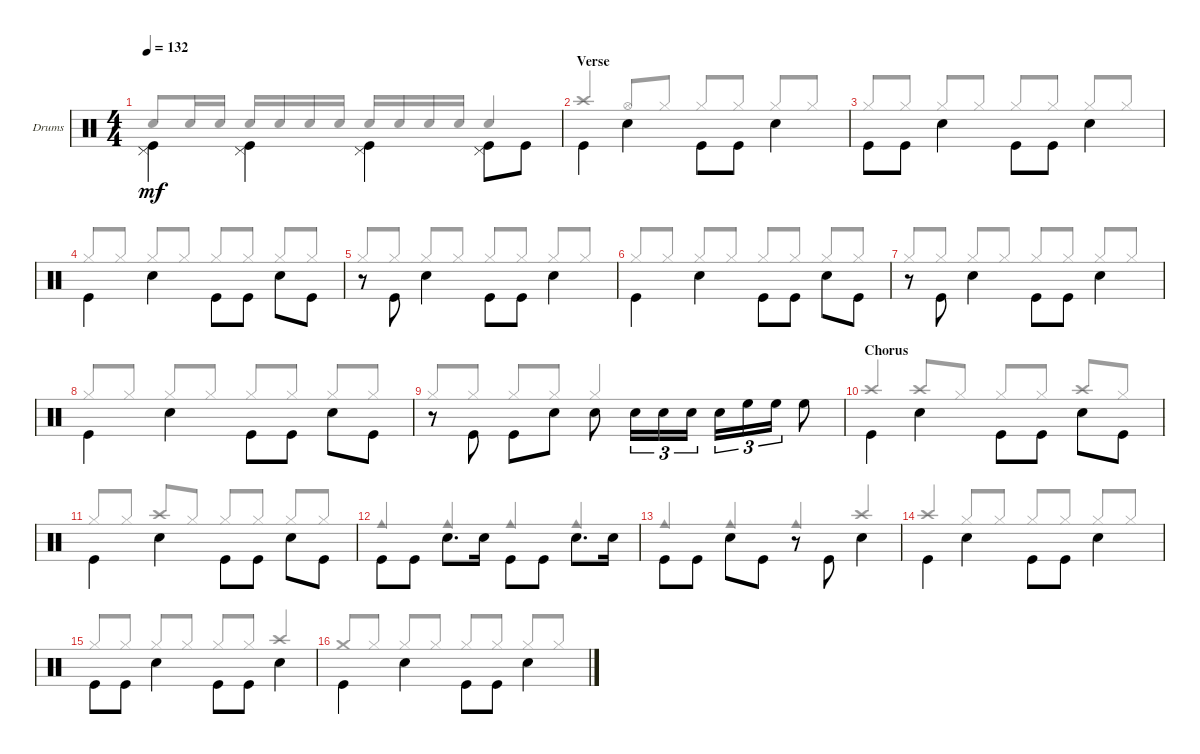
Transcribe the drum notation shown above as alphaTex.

\defaultSystemsLayout 4
\bracketExtendMode groupsimilarinstruments
\firstSystemTrackNameOrientation horizontal
\otherSystemsTrackNameOrientation horizontal
\track ("PETER CRISS" "Drums") {solo instrument percussion}
\staff {score}
\articulation defaults
\voice
\ts (4 4)
\tempo 132
\clef neutral
\ks aminor
("Kick (hit)" "Pedal Hi-Hat (hit)").4{dy mf beam invert} ("Kick (hit)" "Pedal Hi-Hat (hit)").4{beam invert} ("Kick (hit)" "Pedal Hi-Hat (hit)").4{beam invert} ("Pedal Hi-Hat (hit)" "Kick (hit)").8{beam invert} "Kick (hit)".8 |
\section ("" "Verse")
"Kick (hit)".4{beam invert} "Snare (hit) 2".4{beam invert} "Kick (hit)".8{beam invert} "Kick (hit)".8 "Snare (hit) 2".4{beam invert} |
"Kick (hit)".8{beam invert} "Kick (hit)".8 "Snare (hit) 2".4{beam invert} "Kick (hit)".8{beam invert} "Kick (hit)".8 "Snare (hit) 2".4{beam invert} |
"Kick (hit)".4{beam invert} "Snare (hit) 2".4{beam invert} "Kick (hit)".8{beam invert} "Kick (hit)".8 "Snare (hit) 2".8{beam invert} "Kick (hit)".8 |
r.8 "Kick (hit)".8{beam invert} "Snare (hit) 2".4{beam invert} "Kick (hit)".8{beam invert} "Kick (hit)".8 "Snare (hit) 2".4{beam invert} |
"Kick (hit)".4{beam invert} "Snare (hit) 2".4{beam invert} "Kick (hit)".8{beam invert} "Kick (hit)".8 "Snare (hit) 2".8{beam invert} "Kick (hit)".8 |
r.8 "Kick (hit)".8{beam invert} "Snare (hit) 2".4{beam invert} "Kick (hit)".8{beam invert} "Kick (hit)".8 "Snare (hit) 2".4{beam invert} |
"Kick (hit)".4{beam invert} "Snare (hit) 2".4{beam invert} "Kick (hit)".8{beam invert} "Kick (hit)".8 "Snare (hit) 2".8{beam invert} "Kick (hit)".8 |
r.8 "Kick (hit)".8{beam invert} "Kick (hit)".8{beam invert} "Snare (hit) 2".8 "Snare (hit) 2".8{beam invert} "Snare (hit) 2".16{tu (3 2) beam invert} "Snare (hit) 2".16{tu (3 2)} "Snare (hit) 2".16{tu (3 2)} "Snare (hit) 2".16{tu (3 2) beam invert} "High Floor Tom (hit)".16{tu (3 2)} "High Floor Tom (hit)".16{tu (3 2)} "High Floor Tom (hit)".8{beam invert} |
\section ("" "Chorus")
"Kick (hit)".4{beam invert} "Snare (hit) 2".4{beam invert} "Kick (hit)".8{beam invert} "Kick (hit)".8 "Snare (hit) 2".8{beam invert} "Kick (hit)".8 |
"Kick (hit)".4{beam invert} "Snare (hit) 2".4{beam invert} "Kick (hit)".8{beam invert} "Kick (hit)".8 "Snare (hit) 2".8{beam invert} "Kick (hit)".8 |
"Kick (hit)".8{beam invert} "Kick (hit)".8 "Snare (hit) 2".8{d beam invert} "Snare (hit) 2".16 "Kick (hit)".8{beam invert} "Kick (hit)".8 "Snare (hit) 2".8{d beam invert} "Snare (hit) 2".16 |
"Kick (hit)".8{beam invert} "Kick (hit)".8 "Snare (hit) 2".8{beam invert} "Kick (hit)".8 r.8 "Kick (hit)".8{beam invert} "Snare (hit) 2".4{beam invert} |
"Kick (hit)".4{beam invert} "Snare (hit) 2".4{beam invert} "Kick (hit)".8{beam invert} "Kick (hit)".8 "Snare (hit) 2".4{beam invert} |
"Kick (hit)".8{beam invert} "Kick (hit)".8 "Snare (hit) 2".4{beam invert} "Kick (hit)".8{beam invert} "Kick (hit)".8 "Snare (hit) 2".4{beam invert} |
"Kick (hit)".4{beam invert} "Snare (hit) 2".4{beam invert} "Kick (hit)".8{beam invert} "Kick (hit)".8 "Snare (hit) 2".4{beam invert}
\voice
\clef neutral
\ottava regular
\simile none
\ks aminor "Snare (hit) 2".8{dy mf beam invert} "Snare (hit) 2".16 "Snare (hit) 2".16 "Snare (hit) 2".16{beam invert} "Snare (hit) 2".16 "Snare (hit) 2".16 "Snare (hit) 2".16 "Snare (hit) 2".16{beam invert} "Snare (hit) 2".16 "Snare (hit) 2".16 "Snare (hit) 2".16 "Snare (hit) 2".4{beam invert}
|
"Crash high (hit)".4{beam invert} "Hi-Hat (open)".8{beam invert} "Hi-Hat (closed)".8 "Hi-Hat (closed)".8{beam invert} "Hi-Hat (closed)".8 "Hi-Hat (closed)".8{beam invert} "Hi-Hat (closed)".8 |
"Hi-Hat (closed)".8{beam invert} "Hi-Hat (closed)".8 "Hi-Hat (closed)".8{beam invert} "Hi-Hat (closed)".8 "Hi-Hat (closed)".8{beam invert} "Hi-Hat (closed)".8 "Hi-Hat (closed)".8{beam invert} "Hi-Hat (closed)".8 |
"Hi-Hat (closed)".8{beam invert} "Hi-Hat (closed)".8 "Hi-Hat (closed)".8{beam invert} "Hi-Hat (closed)".8 "Hi-Hat (closed)".8{beam invert} "Hi-Hat (closed)".8 "Hi-Hat (closed)".8{beam invert} "Hi-Hat (closed)".8 |
"Hi-Hat (closed)".8{beam invert} "Hi-Hat (closed)".8 "Hi-Hat (closed)".8{beam invert} "Hi-Hat (closed)".8 "Hi-Hat (closed)".8{beam invert} "Hi-Hat (closed)".8 "Hi-Hat (closed)".8{beam invert} "Hi-Hat (closed)".8 |
"Hi-Hat (closed)".8{beam invert} "Hi-Hat (closed)".8 "Hi-Hat (closed)".8{beam invert} "Hi-Hat (closed)".8 "Hi-Hat (closed)".8{beam invert} "Hi-Hat (closed)".8 "Hi-Hat (closed)".8{beam invert} "Hi-Hat (closed)".8 |
"Hi-Hat (closed)".8{beam invert} "Hi-Hat (closed)".8 "Hi-Hat (closed)".8{beam invert} "Hi-Hat (closed)".8 "Hi-Hat (closed)".8{beam invert} "Hi-Hat (closed)".8 "Hi-Hat (closed)".8{beam invert} "Hi-Hat (closed)".8 |
"Hi-Hat (closed)".8{beam invert} "Hi-Hat (closed)".8 "Hi-Hat (closed)".8{beam invert} "Hi-Hat (closed)".8 "Hi-Hat (closed)".8{beam invert} "Hi-Hat (closed)".8 "Hi-Hat (closed)".8{beam invert} "Hi-Hat (closed)".8 |
"Hi-Hat (closed)".8{beam invert} "Hi-Hat (closed)".8 "Hi-Hat (closed)".8{beam invert} "Hi-Hat (closed)".8 "Hi-Hat (closed)".2{beam invert} |
"Crash high (hit)".4{beam invert} "Crash high (hit)".8{beam invert} "Hi-Hat (closed)".8 "Hi-Hat (closed)".8{beam invert} "Hi-Hat (closed)".8 "Crash high (hit)".8{beam invert} "Hi-Hat (closed)".8 |
"Hi-Hat (closed)".8{beam invert} "Hi-Hat (closed)".8 "Crash high (hit)".8{beam invert} "Hi-Hat (closed)".8 "Hi-Hat (closed)".8{beam invert} "Hi-Hat (closed)".8 "Hi-Hat (closed)".8{beam invert} "Hi-Hat (closed)".8 |
"Cowbell medium (hit)".4{beam invert} "Cowbell medium (hit)".4{beam invert} "Cowbell medium (hit)".4{beam invert} "Cowbell medium (hit)".4{beam invert} |
"Cowbell medium (hit)".4{beam invert} "Cowbell medium (hit)".4{beam invert} "Cowbell medium (hit)".4{beam invert} "Crash high (hit)".4{beam invert} |
"Crash high (hit)".4{beam invert} "Hi-Hat (closed)".8{beam invert} "Hi-Hat (closed)".8 "Hi-Hat (closed)".8{beam invert} "Hi-Hat (closed)".8 "Hi-Hat (closed)".8{beam invert} "Hi-Hat (closed)".8 |
"Hi-Hat (closed)".8{beam invert} "Hi-Hat (closed)".8 "Hi-Hat (closed)".8{beam invert} "Hi-Hat (closed)".8 "Hi-Hat (closed)".8{beam invert} "Hi-Hat (closed)".8 "Crash high (hit)".4{beam invert} |
"Crash medium (hit)".8{beam invert} "Hi-Hat (closed)".8 "Hi-Hat (closed)".8{beam invert} "Hi-Hat (closed)".8 "Hi-Hat (closed)".8{beam invert} "Hi-Hat (closed)".8 "Hi-Hat (closed)".8{beam invert} "Hi-Hat (closed)".8
